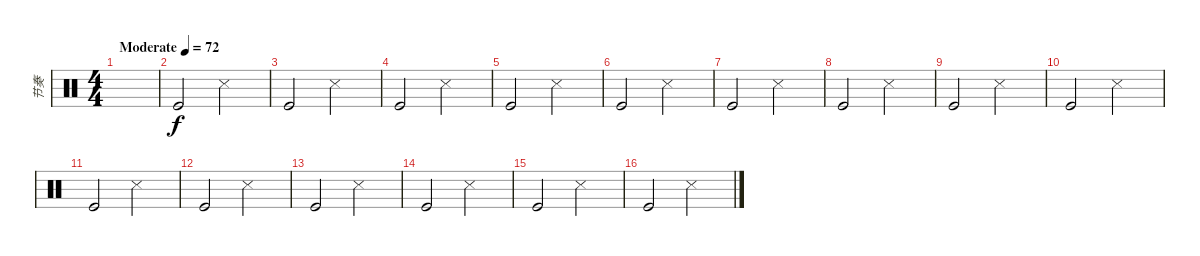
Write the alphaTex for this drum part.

\track ("节奏" "节奏") {instrument percussion}
\staff {score}
\articulation defaults
\ts (4 4)
\tempo (72 "Moderate")
\clef neutral
\ks c
|
"Kick (hit)".2 "Metronome (hit)".2 |
"Kick (hit)".2 "Metronome (hit)".2 |
"Kick (hit)".2 "Metronome (hit)".2 |
"Kick (hit)".2 "Metronome (hit)".2 |
"Kick (hit)".2 "Metronome (hit)".2 |
"Kick (hit)".2 "Metronome (hit)".2 |
"Kick (hit)".2 "Metronome (hit)".2 |
"Kick (hit)".2 "Metronome (hit)".2 |
"Kick (hit)".2 "Metronome (hit)".2 |
"Kick (hit)".2 "Metronome (hit)".2 |
"Kick (hit)".2 "Metronome (hit)".2 |
"Kick (hit)".2 "Metronome (hit)".2 |
"Kick (hit)".2 "Metronome (hit)".2 |
"Kick (hit)".2 "Metronome (hit)".2 |
"Kick (hit)".2 "Metronome (hit)".2
